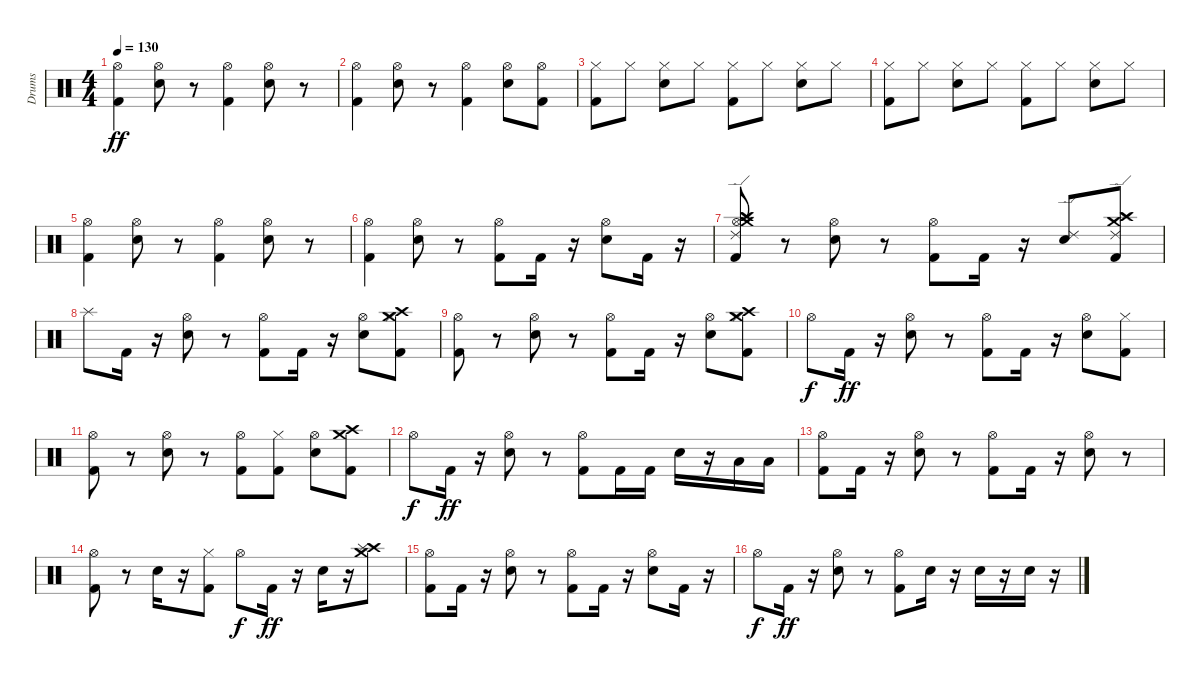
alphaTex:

\track ("Drums" "Drums") {instrument percussion}
\staff {score}
\articulation defaults
\ts (4 4)
\tempo 130
\clef neutral
\ks c
("Kick (hit) 2" "Hi-Hat (open)").4{dy ff} ("Snare (hit) 2" "Hi-Hat (open)").8 r.8 ("Kick (hit) 2" "Hi-Hat (open)").4 ("Snare (hit) 2" "Hi-Hat (open)").8 r.8 |
("Kick (hit) 2" "Hi-Hat (open)").4 ("Snare (hit) 2" "Hi-Hat (open)").8 r.8 ("Kick (hit) 2" "Hi-Hat (open)").4 ("Snare (hit) 2" "Hi-Hat (open)").8 ("Kick (hit) 2" "Hi-Hat (open)").8 |
("Kick (hit) 2" "Hi-Hat (closed)").8 "Hi-Hat (closed)".8 ("Snare (hit) 2" "Hi-Hat (closed)").8 "Hi-Hat (closed)".8 ("Kick (hit) 2" "Hi-Hat (closed)").8 "Hi-Hat (closed)".8 ("Snare (hit) 2" "Hi-Hat (closed)").8 "Hi-Hat (closed)".8 |
("Kick (hit) 2" "Hi-Hat (closed)").8 "Hi-Hat (closed)".8 ("Snare (hit) 2" "Hi-Hat (closed)").8 "Hi-Hat (closed)".8 ("Kick (hit) 2" "Hi-Hat (closed)").8 "Hi-Hat (closed)".8 ("Snare (hit) 2" "Hi-Hat (closed)").8 "Hi-Hat (closed)".8 |
("Kick (hit) 2" "Hi-Hat (open)").4 ("Snare (hit) 2" "Hi-Hat (open)").8 r.8 ("Kick (hit) 2" "Hi-Hat (open)").4 ("Snare (hit) 2" "Hi-Hat (open)").8 r.8 |
("Kick (hit) 2" "Hi-Hat (open)").4 ("Snare (hit) 2" "Hi-Hat (open)").8 r.8 ("Kick (hit) 2" "Hi-Hat (open)").8 "Kick (hit) 2".16 r.16 ("Snare (hit) 2" "Hi-Hat (open)").8 "Kick (hit) 2".16 r.16 |
("Kick (hit) 2" "Hi-Hat (open)" "Crash high (hit)" "Splash (hit)" "Crash medium (hit)" "Ride (edge) 2").8 r.8 ("Snare (hit) 2" "Hi-Hat (open)").8 r.8 ("Kick (hit) 2" "Hi-Hat (open)").8 "Kick (hit) 2".16 r.16 ("Snare (hit) 2" "Ride (edge) 2").8 ("Kick (hit) 2" "Crash high (hit)" "Splash (hit)" "Crash medium (hit)" "Ride (edge) 2").8 |
"Splash (hit)".8 "Kick (hit) 2".16 r.16 ("Snare (hit) 2" "Hi-Hat (open)").8 r.8 ("Kick (hit) 2" "Hi-Hat (open)").8 "Kick (hit) 2".16 r.16 ("Snare (hit) 2" "Hi-Hat (open)").8 ("Kick (hit) 2" "Hi-Hat (closed)" "Crash high (hit)" "Crash medium (hit)").8 |
("Kick (hit) 2" "Hi-Hat (open)").8 r.8 ("Snare (hit) 2" "Hi-Hat (open)").8 r.8 ("Kick (hit) 2" "Hi-Hat (open)").8 "Kick (hit) 2".16 r.16 ("Snare (hit) 2" "Hi-Hat (open)").8 ("Kick (hit) 2" "Hi-Hat (closed)" "Crash high (hit)" "Crash medium (hit)").8 |
"Hi-Hat (open)".8{dy f} "Kick (hit) 2".16{dy ff} r.16 ("Snare (hit) 2" "Hi-Hat (open)").8 r.8 ("Kick (hit) 2" "Hi-Hat (open)").8 "Kick (hit) 2".16 r.16 ("Snare (hit) 2" "Hi-Hat (open)").8 ("Kick (hit) 2" "Hi-Hat (closed)").8 |
("Kick (hit) 2" "Hi-Hat (open)").8 r.8 ("Snare (hit) 2" "Hi-Hat (open)").8 r.8 ("Kick (hit) 2" "Hi-Hat (open)").8 ("Kick (hit) 2" "Hi-Hat (closed)").8 ("Snare (hit) 2" "Hi-Hat (open)").8 ("Kick (hit) 2" "Crash high (hit)" "Crash medium (hit)").8 |
"Hi-Hat (open)".8{dy f} "Kick (hit) 2".16{dy ff} r.16 ("Snare (hit) 2" "Hi-Hat (open)").8 r.8 ("Kick (hit) 2" "Hi-Hat (open)").8 "Kick (hit) 2".16 "Kick (hit) 2".16 "Snare (hit) 2".16 r.16 "Low Floor Tom (hit)".16 "Low Floor Tom (hit)".16 |
("Kick (hit) 2" "Hi-Hat (open)").8 "Kick (hit) 2".16 r.16 ("Snare (hit) 2" "Hi-Hat (open)").8 r.8 ("Kick (hit) 2" "Hi-Hat (open)").8 "Kick (hit) 2".16 r.16 ("Snare (hit) 2" "Hi-Hat (open)").8 r.8 |
("Kick (hit) 2" "Hi-Hat (open)").8 r.8 "Snare (hit) 2".16 r.16 ("Kick (hit) 2" "Hi-Hat (closed)").8 "Hi-Hat (open)".8{dy f} "Kick (hit) 2".16{dy ff} r.16 "Snare (hit) 2".16 r.16 ("Crash high (hit)" "Splash (hit)" "Crash medium (hit)").8 |
("Kick (hit) 2" "Hi-Hat (open)").8 "Kick (hit) 2".16 r.16 ("Snare (hit) 2" "Hi-Hat (open)").8 r.8 ("Kick (hit) 2" "Hi-Hat (open)").8 "Kick (hit) 2".16 r.16 ("Snare (hit) 2" "Hi-Hat (open)").8 "Kick (hit) 2".16 r.16 |
"Hi-Hat (open)".8{dy f} "Kick (hit) 2".16{dy ff} r.16 ("Snare (hit) 2" "Hi-Hat (open)").8 r.8 ("Kick (hit) 2" "Hi-Hat (open)").8 "Snare (hit) 2".16 r.16 "Snare (hit) 2".16 r.16 "Snare (hit) 2".16 r.16
